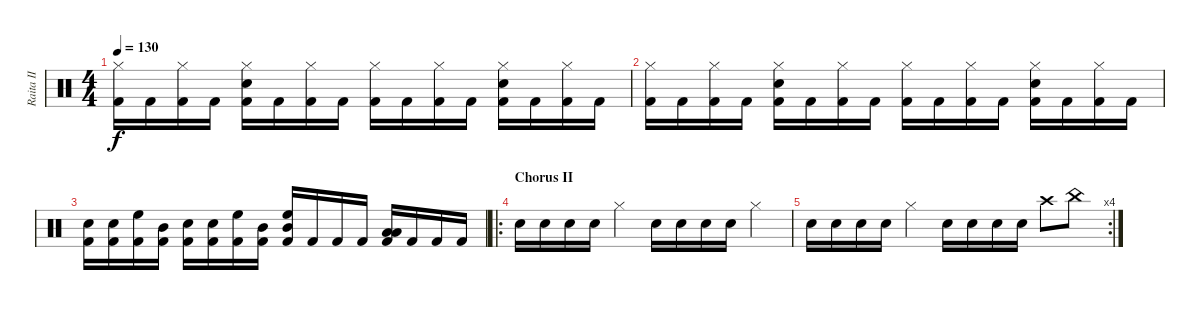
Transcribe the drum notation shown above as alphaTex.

\track ("Raita II" "Raita II") {instrument percussion}
\staff {score}
\articulation defaults
\ts (4 4)
\tempo 130
\clef neutral
\ks c
("Kick (hit) 2" "Hi-Hat (closed)").16{dy f} "Kick (hit) 2".16 ("Kick (hit) 2" "Hi-Hat (closed)").16 "Kick (hit) 2".16 ("Kick (hit) 2" "Hi-Hat (closed)" "Snare (hit) 2").16 "Kick (hit) 2".16 ("Kick (hit) 2" "Hi-Hat (closed)").16 "Kick (hit) 2".16 ("Kick (hit) 2" "Hi-Hat (closed)").16 "Kick (hit) 2".16 ("Kick (hit) 2" "Hi-Hat (closed)").16 "Kick (hit) 2".16 ("Kick (hit) 2" "Hi-Hat (closed)" "Snare (hit) 2").16 "Kick (hit) 2".16 ("Kick (hit) 2" "Hi-Hat (closed)").16 "Kick (hit) 2".16 |
("Kick (hit) 2" "Hi-Hat (closed)").16 "Kick (hit) 2".16 ("Kick (hit) 2" "Hi-Hat (closed)").16 "Kick (hit) 2".16 ("Kick (hit) 2" "Hi-Hat (closed)" "Snare (hit) 2").16 "Kick (hit) 2".16 ("Kick (hit) 2" "Hi-Hat (closed)").16 "Kick (hit) 2".16 ("Kick (hit) 2" "Hi-Hat (closed)").16 "Kick (hit) 2".16 ("Kick (hit) 2" "Hi-Hat (closed)").16 "Kick (hit) 2".16 ("Kick (hit) 2" "Hi-Hat (closed)" "Snare (hit) 2").16 "Kick (hit) 2".16 ("Kick (hit) 2" "Hi-Hat (closed)").16 "Kick (hit) 2".16 |
("Kick (hit) 2" "Snare (hit) 2").16 ("Kick (hit) 2" "Snare (hit) 2").16 ("Kick (hit) 2" "High Floor Tom (hit)").16 ("Kick (hit) 2" "Mid Tom (hit)").16 ("Kick (hit) 2" "Snare (hit) 2").16 ("Kick (hit) 2" "Snare (hit) 2").16 ("Kick (hit) 2" "High Floor Tom (hit)").16 ("Kick (hit) 2" "Mid Tom (hit)").16 ("Kick (hit) 2" "High Floor Tom (hit)" "Mid Tom (hit)").16 "Kick (hit) 2".16 "Kick (hit) 2".16 "Kick (hit) 2".16 ("Kick (hit) 2" "Low Tom (hit)" "Low Floor Tom (hit)").16 "Kick (hit) 2".16 "Kick (hit) 2".16 "Kick (hit) 2".16 |
\ro
\section ("" "Chorus II")
"Snare (hit) 2".16 "Snare (hit) 2".16 "Snare (hit) 2".16 "Snare (hit) 2".16 "Hi-Hat (closed)".4 "Snare (hit) 2".16 "Snare (hit) 2".16 "Snare (hit) 2".16 "Snare (hit) 2".16 "Hi-Hat (closed)".4 |
\rc 4 "Snare (hit) 2".16 "Snare (hit) 2".16 "Snare (hit) 2".16 "Snare (hit) 2".16 "Hi-Hat (closed)".4 "Snare (hit) 2".16 "Snare (hit) 2".16 "Snare (hit) 2".16 "Snare (hit) 2".16 "Crash high (hit)".8 "China (hit)".8
